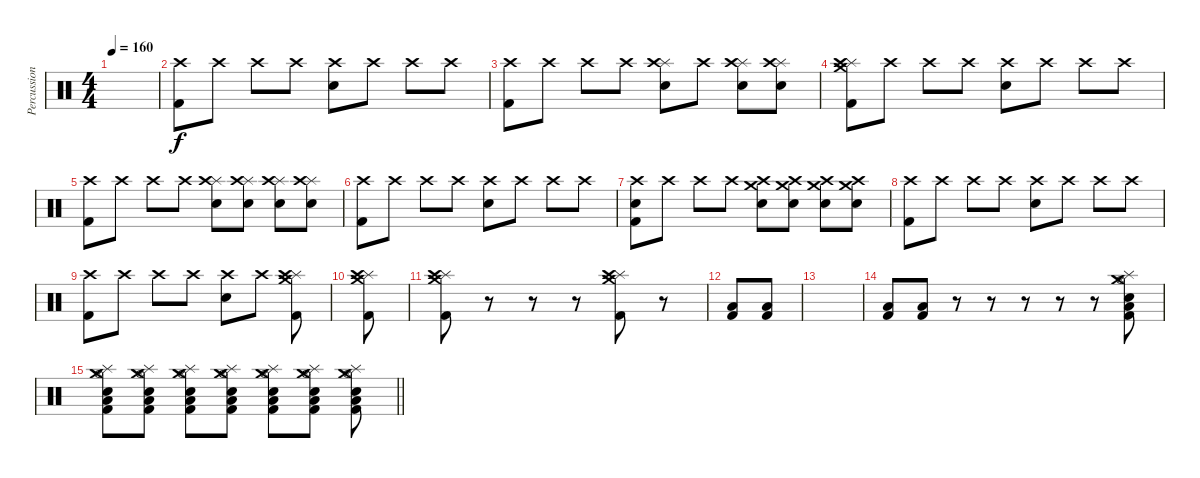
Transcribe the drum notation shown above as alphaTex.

\track ("Percussion" "Percussion") {instrument percussion}
\staff {score}
\articulation defaults
\ts (4 4)
\tempo 160
\clef neutral
\ks c
|
("Kick (hit) 2" "Crash high (hit)").8 "Crash high (hit)".8 "Crash high (hit)".8 "Crash high (hit)".8 ("Electric Snare (hit)" "Crash high (hit)").8 "Crash high (hit)".8 "Crash high (hit)".8 "Crash high (hit)".8 |
("Kick (hit) 2" "Crash high (hit)").8 "Crash high (hit)".8 "Crash high (hit)".8 "Crash high (hit)".8 ("Splash (hit)" "Electric Snare (hit)" "Crash high (hit)").8 "Crash high (hit)".8 ("Splash (hit)" "Electric Snare (hit)" "Crash high (hit)").8 ("Splash (hit)" "Electric Snare (hit)" "Crash high (hit)").8 |
("Splash (hit)" "Crash medium (hit)" "Kick (hit) 2" "Crash high (hit)").8 "Crash high (hit)".8 "Crash high (hit)".8 "Crash high (hit)".8 ("Electric Snare (hit)" "Crash high (hit)").8 "Crash high (hit)".8 "Crash high (hit)".8 "Crash high (hit)".8 |
("Kick (hit) 2" "Crash high (hit)").8 "Crash high (hit)".8 "Crash high (hit)".8 "Crash high (hit)".8 ("Splash (hit)" "Electric Snare (hit)" "Crash high (hit)").8 ("Splash (hit)" "Electric Snare (hit)" "Crash high (hit)").8 ("Splash (hit)" "Electric Snare (hit)" "Crash high (hit)").8 ("Splash (hit)" "Electric Snare (hit)" "Crash high (hit)").8 |
("Kick (hit) 2" "Crash high (hit)").8 "Crash high (hit)".8 "Crash high (hit)".8 "Crash high (hit)".8 ("Electric Snare (hit)" "Crash high (hit)").8 "Crash high (hit)".8 "Crash high (hit)".8 "Crash high (hit)".8 |
("Kick (hit) 2" "Electric Snare (hit)" "Crash high (hit)").8 "Crash high (hit)".8 "Crash high (hit)".8 "Crash high (hit)".8 ("Crash medium (hit)" "Electric Snare (hit)" "Crash high (hit)").8 ("Crash medium (hit)" "Electric Snare (hit)" "Crash high (hit)").8 ("Crash medium (hit)" "Electric Snare (hit)" "Crash high (hit)").8 ("Crash medium (hit)" "Electric Snare (hit)" "Crash high (hit)").8 |
("Kick (hit) 2" "Crash high (hit)").8 "Crash high (hit)".8 "Crash high (hit)".8 "Crash high (hit)".8 ("Electric Snare (hit)" "Crash high (hit)").8 "Crash high (hit)".8 "Crash high (hit)".8 "Crash high (hit)".8 |
("Kick (hit) 2" "Crash high (hit)").8 "Crash high (hit)".8 "Crash high (hit)".8 "Crash high (hit)".8 ("Electric Snare (hit)" "Crash high (hit)").8 "Crash high (hit)".8 ("Crash medium (hit)" "Splash (hit)" "Kick (hit) 2" "Crash high (hit)").8 |
("Splash (hit)" "Crash medium (hit)" "Kick (hit) 2" "Crash high (hit)").8 |
("Splash (hit)" "Crash medium (hit)" "Kick (hit) 2" "Crash high (hit)").8 r.8 r.8 r.8 ("Splash (hit)" "Crash medium (hit)" "Kick (hit) 2" "Crash high (hit)").8 r.8 |
("Low Floor Tom (hit)" "Kick (hit) 2").8 ("Low Floor Tom (hit)" "Kick (hit) 2").8 |
|
("Low Floor Tom (hit)" "Kick (hit) 2").8 ("Low Floor Tom (hit)" "Kick (hit) 2").8 r.8 r.8 r.8 r.8 r.8 ("Crash medium (hit)" "Low Tom (hit)" "Splash (hit)" "Kick (hit) 2" "Electric Snare (hit)" "Hi-Hat (open)").8 |
\barLineRight lightlight
("Crash medium (hit)" "Low Tom (hit)" "Splash (hit)" "Kick (hit) 2" "Electric Snare (hit)" "Hi-Hat (open)").8 ("Crash medium (hit)" "Low Tom (hit)" "Splash (hit)" "Kick (hit) 2" "Electric Snare (hit)" "Hi-Hat (open)").8 ("Crash medium (hit)" "Low Tom (hit)" "Splash (hit)" "Kick (hit) 2" "Electric Snare (hit)" "Hi-Hat (open)").8 ("Crash medium (hit)" "Low Floor Tom (hit)" "Splash (hit)" "Kick (hit) 2" "Electric Snare (hit)" "Hi-Hat (open)").8 ("Crash medium (hit)" "Low Floor Tom (hit)" "Splash (hit)" "Kick (hit) 2" "Electric Snare (hit)" "Hi-Hat (open)").8 ("Crash medium (hit)" "Low Floor Tom (hit)" "Splash (hit)" "Kick (hit) 2" "Electric Snare (hit)" "Hi-Hat (open)").8 ("Crash medium (hit)" "Low Floor Tom (hit)" "Splash (hit)" "Kick (hit) 2" "Electric Snare (hit)" "Hi-Hat (open)").8
